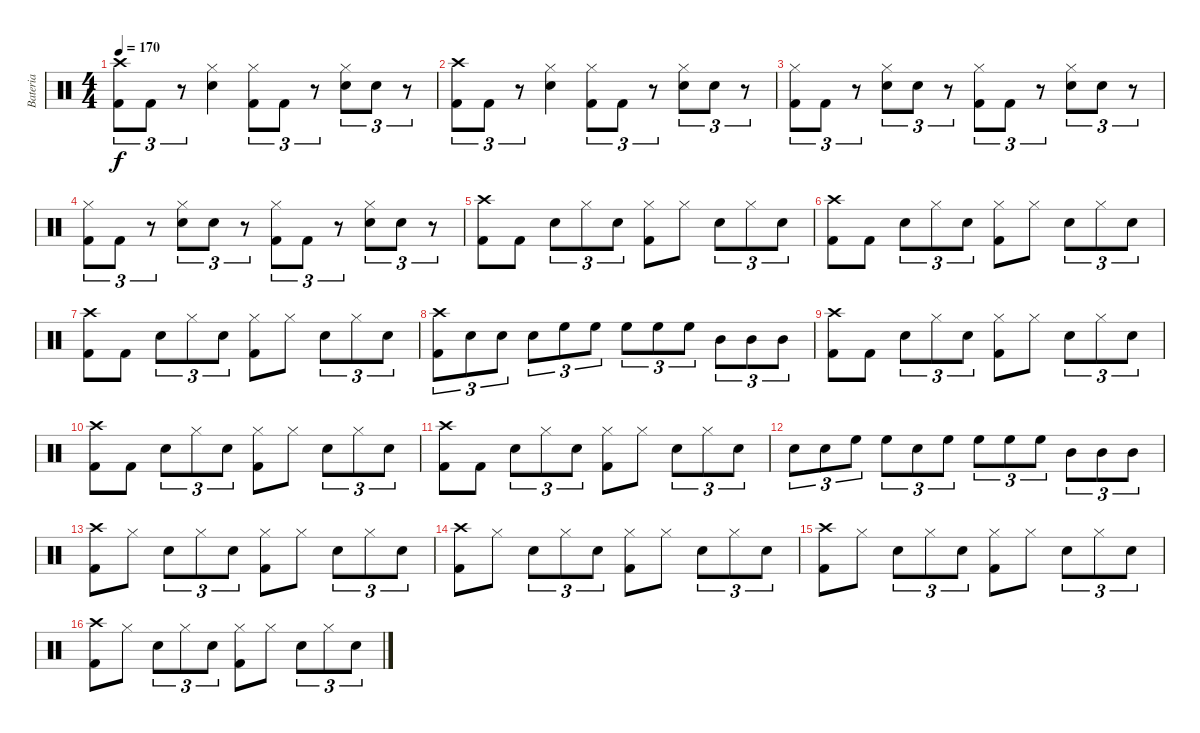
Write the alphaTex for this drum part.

\track ("Bateria" "Bateria") {instrument percussion}
\staff {score}
\articulation defaults
\ts (4 4)
\tempo 170
\clef neutral
\ks c
("Crash high (hit)" "Kick (hit) 2").8{tu (3 2) dy f} "Kick (hit) 2".8{tu (3 2)} r.8{tu (3 2)} ("Hi-Hat (closed)" "Snare (hit) 2").4 ("Hi-Hat (closed)" "Kick (hit) 2").8{tu (3 2)} "Kick (hit) 2".8{tu (3 2)} r.8{tu (3 2)} ("Hi-Hat (closed)" "Snare (hit) 2").8{tu (3 2)} "Snare (hit) 2".8{tu (3 2)} r.8{tu (3 2)} |
("Crash high (hit)" "Kick (hit) 2").8{tu (3 2)} "Kick (hit) 2".8{tu (3 2)} r.8{tu (3 2)} ("Hi-Hat (closed)" "Snare (hit) 2").4 ("Hi-Hat (closed)" "Kick (hit) 2").8{tu (3 2)} "Kick (hit) 2".8{tu (3 2)} r.8{tu (3 2)} ("Hi-Hat (closed)" "Snare (hit) 2").8{tu (3 2)} "Snare (hit) 2".8{tu (3 2)} r.8{tu (3 2)} |
("Hi-Hat (closed)" "Kick (hit) 2").8{tu (3 2)} "Kick (hit) 2".8{tu (3 2)} r.8{tu (3 2)} ("Hi-Hat (closed)" "Snare (hit) 2").8{tu (3 2)} "Snare (hit) 2".8{tu (3 2)} r.8{tu (3 2)} ("Hi-Hat (closed)" "Kick (hit) 2").8{tu (3 2)} "Kick (hit) 2".8{tu (3 2)} r.8{tu (3 2)} ("Hi-Hat (closed)" "Snare (hit) 2").8{tu (3 2)} "Snare (hit) 2".8{tu (3 2)} r.8{tu (3 2)} |
("Hi-Hat (closed)" "Kick (hit) 2").8{tu (3 2)} "Kick (hit) 2".8{tu (3 2)} r.8{tu (3 2)} ("Hi-Hat (closed)" "Snare (hit) 2").8{tu (3 2)} "Snare (hit) 2".8{tu (3 2)} r.8{tu (3 2)} ("Hi-Hat (closed)" "Kick (hit) 2").8{tu (3 2)} "Kick (hit) 2".8{tu (3 2)} r.8{tu (3 2)} ("Hi-Hat (closed)" "Snare (hit) 2").8{tu (3 2)} "Snare (hit) 2".8{tu (3 2)} r.8{tu (3 2)} |
("Crash high (hit)" "Kick (hit) 2").8 "Kick (hit) 2".8 "Snare (hit) 2".8{tu (3 2)} "Hi-Hat (closed)".8{tu (3 2)} "Snare (hit) 2".8{tu (3 2)} ("Hi-Hat (closed)" "Kick (hit) 2").8 "Hi-Hat (closed)".8 "Snare (hit) 2".8{tu (3 2)} "Hi-Hat (closed)".8{tu (3 2)} "Snare (hit) 2".8{tu (3 2)} |
("Crash high (hit)" "Kick (hit) 2").8 "Kick (hit) 2".8 "Snare (hit) 2".8{tu (3 2)} "Hi-Hat (closed)".8{tu (3 2)} "Snare (hit) 2".8{tu (3 2)} ("Hi-Hat (closed)" "Kick (hit) 2").8 "Hi-Hat (closed)".8 "Snare (hit) 2".8{tu (3 2)} "Hi-Hat (closed)".8{tu (3 2)} "Snare (hit) 2".8{tu (3 2)} |
("Crash high (hit)" "Kick (hit) 2").8 "Kick (hit) 2".8 "Snare (hit) 2".8{tu (3 2)} "Hi-Hat (closed)".8{tu (3 2)} "Snare (hit) 2".8{tu (3 2)} ("Hi-Hat (closed)" "Kick (hit) 2").8 "Hi-Hat (closed)".8 "Snare (hit) 2".8{tu (3 2)} "Hi-Hat (closed)".8{tu (3 2)} "Snare (hit) 2".8{tu (3 2)} |
("Crash high (hit)" "Kick (hit) 2").8{tu (3 2)} "Snare (hit) 2".8{tu (3 2)} "Snare (hit) 2".8{tu (3 2)} "Snare (hit) 2".8{tu (3 2)} "High Floor Tom (hit)".8{tu (3 2)} "High Floor Tom (hit)".8{tu (3 2)} "High Floor Tom (hit)".8{tu (3 2)} "High Floor Tom (hit)".8{tu (3 2)} "High Floor Tom (hit)".8{tu (3 2)} "Mid Tom (hit)".8{tu (3 2)} "Mid Tom (hit)".8{tu (3 2)} "Mid Tom (hit)".8{tu (3 2)} |
("Crash high (hit)" "Kick (hit) 2").8 "Kick (hit) 2".8 "Snare (hit) 2".8{tu (3 2)} "Hi-Hat (closed)".8{tu (3 2)} "Snare (hit) 2".8{tu (3 2)} ("Hi-Hat (closed)" "Kick (hit) 2").8 "Hi-Hat (closed)".8 "Snare (hit) 2".8{tu (3 2)} "Hi-Hat (closed)".8{tu (3 2)} "Snare (hit) 2".8{tu (3 2)} |
("Crash high (hit)" "Kick (hit) 2").8 "Kick (hit) 2".8 "Snare (hit) 2".8{tu (3 2)} "Hi-Hat (closed)".8{tu (3 2)} "Snare (hit) 2".8{tu (3 2)} ("Hi-Hat (closed)" "Kick (hit) 2").8 "Hi-Hat (closed)".8 "Snare (hit) 2".8{tu (3 2)} "Hi-Hat (closed)".8{tu (3 2)} "Snare (hit) 2".8{tu (3 2)} |
("Crash high (hit)" "Kick (hit) 2").8 "Kick (hit) 2".8 "Snare (hit) 2".8{tu (3 2)} "Hi-Hat (closed)".8{tu (3 2)} "Snare (hit) 2".8{tu (3 2)} ("Hi-Hat (closed)" "Kick (hit) 2").8 "Hi-Hat (closed)".8 "Snare (hit) 2".8{tu (3 2)} "Hi-Hat (closed)".8{tu (3 2)} "Snare (hit) 2".8{tu (3 2)} |
"Snare (hit) 2".8{tu (3 2)} "Snare (hit) 2".8{tu (3 2)} "High Floor Tom (hit)".8{tu (3 2)} "High Floor Tom (hit)".8{tu (3 2)} "Snare (hit) 2".8{tu (3 2)} "High Floor Tom (hit)".8{tu (3 2)} "High Floor Tom (hit)".8{tu (3 2)} "High Floor Tom (hit)".8{tu (3 2)} "High Floor Tom (hit)".8{tu (3 2)} "Mid Tom (hit)".8{tu (3 2)} "Mid Tom (hit)".8{tu (3 2)} "Mid Tom (hit)".8{tu (3 2)} |
\section ("" "")
("Crash high (hit)" "Kick (hit) 2").8 "Hi-Hat (closed)".8 "Snare (hit) 2".8{tu (3 2)} "Hi-Hat (closed)".8{tu (3 2)} "Snare (hit) 2".8{tu (3 2)} ("Hi-Hat (closed)" "Kick (hit) 2").8 "Hi-Hat (closed)".8 "Snare (hit) 2".8{tu (3 2)} "Hi-Hat (closed)".8{tu (3 2)} "Snare (hit) 2".8{tu (3 2)} |
("Crash high (hit)" "Kick (hit) 2").8 "Hi-Hat (closed)".8 "Snare (hit) 2".8{tu (3 2)} "Hi-Hat (closed)".8{tu (3 2)} "Snare (hit) 2".8{tu (3 2)} ("Hi-Hat (closed)" "Kick (hit) 2").8 "Hi-Hat (closed)".8 "Snare (hit) 2".8{tu (3 2)} "Hi-Hat (closed)".8{tu (3 2)} "Snare (hit) 2".8{tu (3 2)} |
("Crash high (hit)" "Kick (hit) 2").8 "Hi-Hat (closed)".8 "Snare (hit) 2".8{tu (3 2)} "Hi-Hat (closed)".8{tu (3 2)} "Snare (hit) 2".8{tu (3 2)} ("Hi-Hat (closed)" "Kick (hit) 2").8 "Hi-Hat (closed)".8 "Snare (hit) 2".8{tu (3 2)} "Hi-Hat (closed)".8{tu (3 2)} "Snare (hit) 2".8{tu (3 2)} |
("Crash high (hit)" "Kick (hit) 2").8 "Hi-Hat (closed)".8 "Snare (hit) 2".8{tu (3 2)} "Hi-Hat (closed)".8{tu (3 2)} "Snare (hit) 2".8{tu (3 2)} ("Hi-Hat (closed)" "Kick (hit) 2").8 "Hi-Hat (closed)".8 "Snare (hit) 2".8{tu (3 2)} "Hi-Hat (closed)".8{tu (3 2)} "Snare (hit) 2".8{tu (3 2)}
